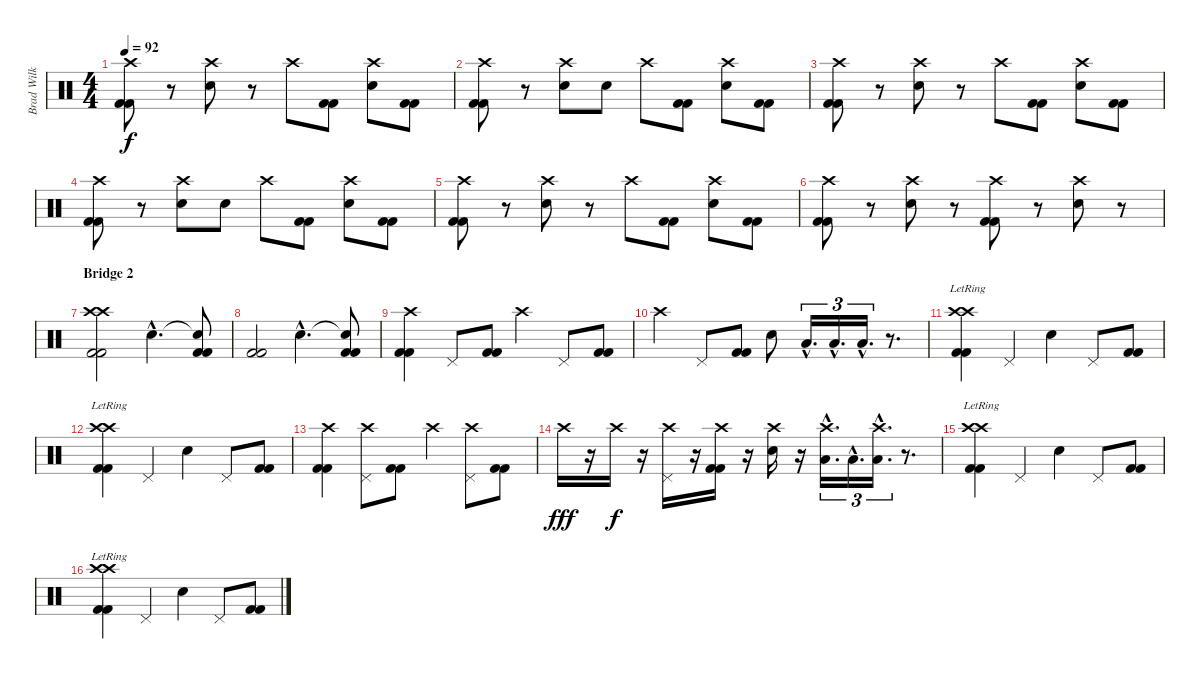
\track ("Brad Wilk" "Brad Wilk") {instrument percussion}
\staff {score}
\articulation defaults
\ts (4 4)
\tempo 92
\clef neutral
\ks c
("Crash high (hit)" "Kick (hit) 2" "Kick (hit) 2").8{dy f} r.8 ("Crash high (hit)" "Electric Snare (hit)").8 r.8 "Crash high (hit)".8 ("Kick (hit) 2" "Kick (hit) 2").8 ("Crash high (hit)" "Electric Snare (hit)").8 ("Kick (hit) 2" "Kick (hit) 2").8 |
("Crash high (hit)" "Kick (hit) 2" "Kick (hit) 2").8 r.8 ("Crash high (hit)" "Electric Snare (hit)").8 "Electric Snare (hit)".8 "Crash high (hit)".8 ("Kick (hit) 2" "Kick (hit) 2").8 ("Crash high (hit)" "Electric Snare (hit)").8 ("Kick (hit) 2" "Kick (hit) 2").8 |
("Crash high (hit)" "Kick (hit) 2" "Kick (hit) 2").8 r.8 ("Crash high (hit)" "Electric Snare (hit)").8 r.8 "Crash high (hit)".8 ("Kick (hit) 2" "Kick (hit) 2").8 ("Crash high (hit)" "Electric Snare (hit)").8 ("Kick (hit) 2" "Kick (hit) 2").8 |
("Crash high (hit)" "Kick (hit) 2" "Kick (hit) 2").8 r.8 ("Crash high (hit)" "Electric Snare (hit)").8 "Electric Snare (hit)".8 "Crash high (hit)".8 ("Kick (hit) 2" "Kick (hit) 2").8 ("Crash high (hit)" "Electric Snare (hit)").8 ("Kick (hit) 2" "Kick (hit) 2").8 |
("Crash high (hit)" "Kick (hit) 2" "Kick (hit) 2").8 r.8 ("Crash high (hit)" "Electric Snare (hit)").8 r.8 "Crash high (hit)".8 ("Kick (hit) 2" "Kick (hit) 2").8 ("Crash high (hit)" "Electric Snare (hit)").8 ("Kick (hit) 2" "Kick (hit) 2").8 |
("Crash high (hit)" "Kick (hit) 2" "Kick (hit) 2").8 r.8 ("Crash high (hit)" "Electric Snare (hit)").8 r.8 ("Crash high (hit)" "Kick (hit) 2" "Kick (hit) 2").8 r.8 ("Crash high (hit)" "Electric Snare (hit)").8 r.8 |
\section ("" "Bridge 2")
("Crash high (hit)" "Crash high (hit)" "Kick (hit) 2" "Kick (hit) 2").2 "Electric Snare (hit)"{hac}.4{d} ("Snare (hit)"{t} "Kick (hit) 2" "Kick (hit) 2").8 |
("Kick (hit) 2" "Kick (hit) 2").2 "Electric Snare (hit)"{hac}.4{d} ("Snare (hit)"{t} "Kick (hit) 2" "Kick (hit) 2").8 |
("Crash high (hit)" "Kick (hit) 2" "Kick (hit) 2").4 "Pedal Hi-Hat (hit)".8 ("Kick (hit) 2" "Kick (hit) 2").8 "Crash high (hit)".4 "Pedal Hi-Hat (hit)".8 ("Kick (hit) 2" "Kick (hit) 2").8 |
"Crash high (hit)".4 "Pedal Hi-Hat (hit)".8 ("Kick (hit) 2" "Kick (hit) 2").8 "Electric Snare (hit)".8 "Low Tom (hit)"{hac}.16{d tu (3 2)} "Low Tom (hit)"{hac}.16{d tu (3 2)} "Low Tom (hit)"{hac}.16{d tu (3 2)} r.8{d} |
("Crash high (hit)"{lr} "Crash high (hit)"{lr} "Kick (hit) 2" "Kick (hit) 2").4 "Pedal Hi-Hat (hit)".4 "Electric Snare (hit)".4 "Pedal Hi-Hat (hit)".8 ("Kick (hit) 2" "Kick (hit) 2").8 |
("Crash high (hit)"{lr} "Crash high (hit)"{lr} "Kick (hit) 2" "Kick (hit) 2").4 "Pedal Hi-Hat (hit)".4 "Electric Snare (hit)".4 "Pedal Hi-Hat (hit)".8 ("Kick (hit) 2" "Kick (hit) 2").8 |
("Crash high (hit)" "Kick (hit) 2" "Kick (hit) 2").4 ("Crash high (hit)" "Pedal Hi-Hat (hit)").8 ("Kick (hit) 2" "Kick (hit) 2").8 "Crash high (hit)".4 ("Crash high (hit)" "Pedal Hi-Hat (hit)").8 ("Kick (hit) 2" "Kick (hit) 2").8 |
"Crash high (hit)".16{dy fff} r.16 "Crash high (hit)".16{dy f} r.16 ("Crash high (hit)" "Pedal Hi-Hat (hit)").16 r.16 ("Crash high (hit)" "Kick (hit) 2" "Kick (hit) 2").16 r.16 ("Crash high (hit)" "Electric Snare (hit)").16 r.16 ("Crash high (hit)"{hac} "Low Tom (hit)"{hac}).16{d tu (3 2)} "Low Tom (hit)"{hac}.16{d tu (3 2)} ("Crash high (hit)"{hac} "Low Tom (hit)"{hac}).16{d tu (3 2)} r.8{d} |
("Crash high (hit)"{lr} "Crash high (hit)"{lr} "Kick (hit) 2" "Kick (hit) 2").4 "Pedal Hi-Hat (hit)".4 "Electric Snare (hit)".4 "Pedal Hi-Hat (hit)".8 ("Kick (hit) 2" "Kick (hit) 2").8 |
("Crash high (hit)"{lr} "Crash high (hit)"{lr} "Kick (hit) 2" "Kick (hit) 2").4 "Pedal Hi-Hat (hit)".4 "Electric Snare (hit)".4 "Pedal Hi-Hat (hit)".8 ("Kick (hit) 2" "Kick (hit) 2").8
